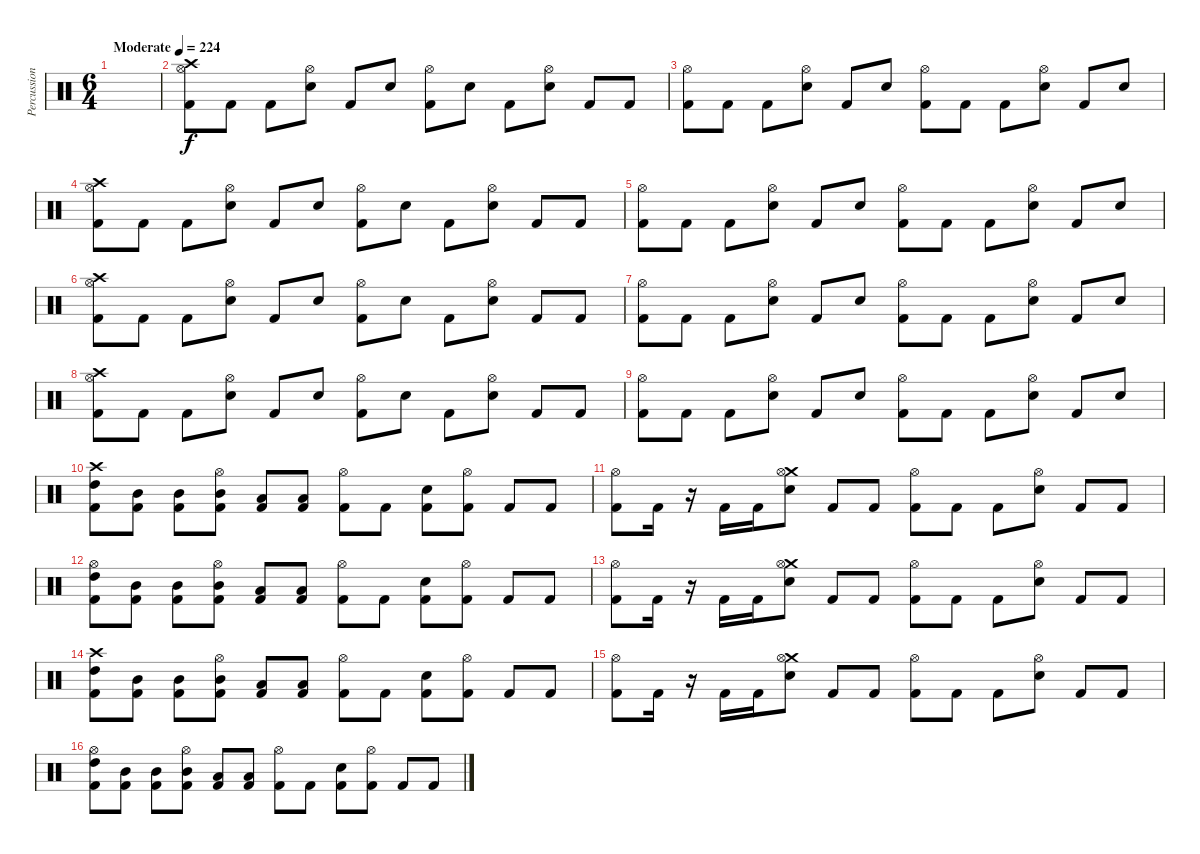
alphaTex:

\track ("Percussion" "Percussion") {instrument percussion}
\staff {score}
\articulation defaults
\ts (6 4)
\tempo (224 "Moderate")
\clef neutral
\ks c
|
("Crash high (hit)" "Hi-Hat (open)" "Kick (hit) 2").8 "Kick (hit) 2".8 "Kick (hit) 2".8 ("Hi-Hat (open)" "Electric Snare (hit)").8 "Kick (hit) 2".8 "Electric Snare (hit)".8 ("Hi-Hat (open)" "Kick (hit) 2").8 "Electric Snare (hit)".8 "Kick (hit) 2".8 ("Hi-Hat (open)" "Electric Snare (hit)").8 "Kick (hit) 2".8 "Kick (hit) 2".8 |
("Hi-Hat (open)" "Kick (hit) 2").8 "Kick (hit) 2".8 "Kick (hit) 2".8 ("Hi-Hat (open)" "Electric Snare (hit)").8 "Kick (hit) 2".8 "Electric Snare (hit)".8 ("Hi-Hat (open)" "Kick (hit) 2").8 "Kick (hit) 2".8 "Kick (hit) 2".8 ("Hi-Hat (open)" "Electric Snare (hit)").8 "Kick (hit) 2".8 "Electric Snare (hit)".8 |
("Crash high (hit)" "Hi-Hat (open)" "Kick (hit) 2").8 "Kick (hit) 2".8 "Kick (hit) 2".8 ("Hi-Hat (open)" "Electric Snare (hit)").8 "Kick (hit) 2".8 "Electric Snare (hit)".8 ("Hi-Hat (open)" "Kick (hit) 2").8 "Electric Snare (hit)".8 "Kick (hit) 2".8 ("Hi-Hat (open)" "Electric Snare (hit)").8 "Kick (hit) 2".8 "Kick (hit) 2".8 |
("Hi-Hat (open)" "Kick (hit) 2").8 "Kick (hit) 2".8 "Kick (hit) 2".8 ("Hi-Hat (open)" "Electric Snare (hit)").8 "Kick (hit) 2".8 "Electric Snare (hit)".8 ("Hi-Hat (open)" "Kick (hit) 2").8 "Kick (hit) 2".8 "Kick (hit) 2".8 ("Hi-Hat (open)" "Electric Snare (hit)").8 "Kick (hit) 2".8 "Electric Snare (hit)".8 |
("Crash high (hit)" "Hi-Hat (open)" "Kick (hit) 2").8 "Kick (hit) 2".8 "Kick (hit) 2".8 ("Hi-Hat (open)" "Electric Snare (hit)").8 "Kick (hit) 2".8 "Electric Snare (hit)".8 ("Hi-Hat (open)" "Kick (hit) 2").8 "Electric Snare (hit)".8 "Kick (hit) 2".8 ("Hi-Hat (open)" "Electric Snare (hit)").8 "Kick (hit) 2".8 "Kick (hit) 2".8 |
("Hi-Hat (open)" "Kick (hit) 2").8 "Kick (hit) 2".8 "Kick (hit) 2".8 ("Hi-Hat (open)" "Electric Snare (hit)").8 "Kick (hit) 2".8 "Electric Snare (hit)".8 ("Hi-Hat (open)" "Kick (hit) 2").8 "Kick (hit) 2".8 "Kick (hit) 2".8 ("Hi-Hat (open)" "Electric Snare (hit)").8 "Kick (hit) 2".8 "Electric Snare (hit)".8 |
("Crash high (hit)" "Hi-Hat (open)" "Kick (hit) 2").8 "Kick (hit) 2".8 "Kick (hit) 2".8 ("Hi-Hat (open)" "Electric Snare (hit)").8 "Kick (hit) 2".8 "Electric Snare (hit)".8 ("Hi-Hat (open)" "Kick (hit) 2").8 "Electric Snare (hit)".8 "Kick (hit) 2".8 ("Hi-Hat (open)" "Electric Snare (hit)").8 "Kick (hit) 2".8 "Kick (hit) 2".8 |
("Hi-Hat (open)" "Kick (hit) 2").8 "Kick (hit) 2".8 "Kick (hit) 2".8 ("Hi-Hat (open)" "Electric Snare (hit)").8 "Kick (hit) 2".8 "Electric Snare (hit)".8 ("Hi-Hat (open)" "Kick (hit) 2").8 "Kick (hit) 2".8 "Kick (hit) 2".8 ("Hi-Hat (open)" "Electric Snare (hit)").8 "Kick (hit) 2".8 "Electric Snare (hit)".8 |
("Crash high (hit)" "High Tom (hit)" "Kick (hit) 2").8 ("Mid Tom (hit)" "Kick (hit) 2").8 ("Mid Tom (hit)" "Kick (hit) 2").8 ("Mid Tom (hit)" "Hi-Hat (open)" "Kick (hit) 2").8 ("Low Tom (hit)" "Kick (hit) 2").8 ("Low Tom (hit)" "Kick (hit) 2").8 ("Hi-Hat (open)" "Kick (hit) 2").8 "Kick (hit) 2".8 ("Electric Snare (hit)" "Kick (hit) 2").8 ("Hi-Hat (open)" "Kick (hit) 2").8 "Kick (hit) 2".8 "Kick (hit) 2".8 |
("Hi-Hat (open)" "Kick (hit) 2").8 "Kick (hit) 2".16 r.16 "Kick (hit) 2".16 "Kick (hit) 2".16 ("Crash medium (hit)" "Hi-Hat (open)" "Electric Snare (hit)").8 "Kick (hit) 2".8 "Kick (hit) 2".8 ("Hi-Hat (open)" "Kick (hit) 2").8 "Kick (hit) 2".8 "Kick (hit) 2".8 ("Hi-Hat (open)" "Electric Snare (hit)").8 "Kick (hit) 2".8 "Kick (hit) 2".8 |
("High Tom (hit)" "Hi-Hat (open)" "Kick (hit) 2").8 ("Mid Tom (hit)" "Kick (hit) 2").8 ("Mid Tom (hit)" "Kick (hit) 2").8 ("Mid Tom (hit)" "Hi-Hat (open)" "Kick (hit) 2").8 ("Low Tom (hit)" "Kick (hit) 2").8 ("Low Tom (hit)" "Kick (hit) 2").8 ("Hi-Hat (open)" "Kick (hit) 2").8 "Kick (hit) 2".8 ("Electric Snare (hit)" "Kick (hit) 2").8 ("Hi-Hat (open)" "Kick (hit) 2").8 "Kick (hit) 2".8 "Kick (hit) 2".8 |
("Hi-Hat (open)" "Kick (hit) 2").8 "Kick (hit) 2".16 r.16 "Kick (hit) 2".16 "Kick (hit) 2".16 ("Crash medium (hit)" "Hi-Hat (open)" "Electric Snare (hit)").8 "Kick (hit) 2".8 "Kick (hit) 2".8 ("Hi-Hat (open)" "Kick (hit) 2").8 "Kick (hit) 2".8 "Kick (hit) 2".8 ("Hi-Hat (open)" "Electric Snare (hit)").8 "Kick (hit) 2".8 "Kick (hit) 2".8 |
("Crash high (hit)" "High Tom (hit)" "Kick (hit) 2").8 ("Mid Tom (hit)" "Kick (hit) 2").8 ("Mid Tom (hit)" "Kick (hit) 2").8 ("Mid Tom (hit)" "Hi-Hat (open)" "Kick (hit) 2").8 ("Low Tom (hit)" "Kick (hit) 2").8 ("Low Tom (hit)" "Kick (hit) 2").8 ("Hi-Hat (open)" "Kick (hit) 2").8 "Kick (hit) 2".8 ("Electric Snare (hit)" "Kick (hit) 2").8 ("Hi-Hat (open)" "Kick (hit) 2").8 "Kick (hit) 2".8 "Kick (hit) 2".8 |
("Hi-Hat (open)" "Kick (hit) 2").8 "Kick (hit) 2".16 r.16 "Kick (hit) 2".16 "Kick (hit) 2".16 ("Crash medium (hit)" "Hi-Hat (open)" "Electric Snare (hit)").8 "Kick (hit) 2".8 "Kick (hit) 2".8 ("Hi-Hat (open)" "Kick (hit) 2").8 "Kick (hit) 2".8 "Kick (hit) 2".8 ("Hi-Hat (open)" "Electric Snare (hit)").8 "Kick (hit) 2".8 "Kick (hit) 2".8 |
("High Tom (hit)" "Hi-Hat (open)" "Kick (hit) 2").8 ("Mid Tom (hit)" "Kick (hit) 2").8 ("Mid Tom (hit)" "Kick (hit) 2").8 ("Mid Tom (hit)" "Hi-Hat (open)" "Kick (hit) 2").8 ("Low Tom (hit)" "Kick (hit) 2").8 ("Low Tom (hit)" "Kick (hit) 2").8 ("Hi-Hat (open)" "Kick (hit) 2").8 "Kick (hit) 2".8 ("Electric Snare (hit)" "Kick (hit) 2").8 ("Hi-Hat (open)" "Kick (hit) 2").8 "Kick (hit) 2".8 "Kick (hit) 2".8
